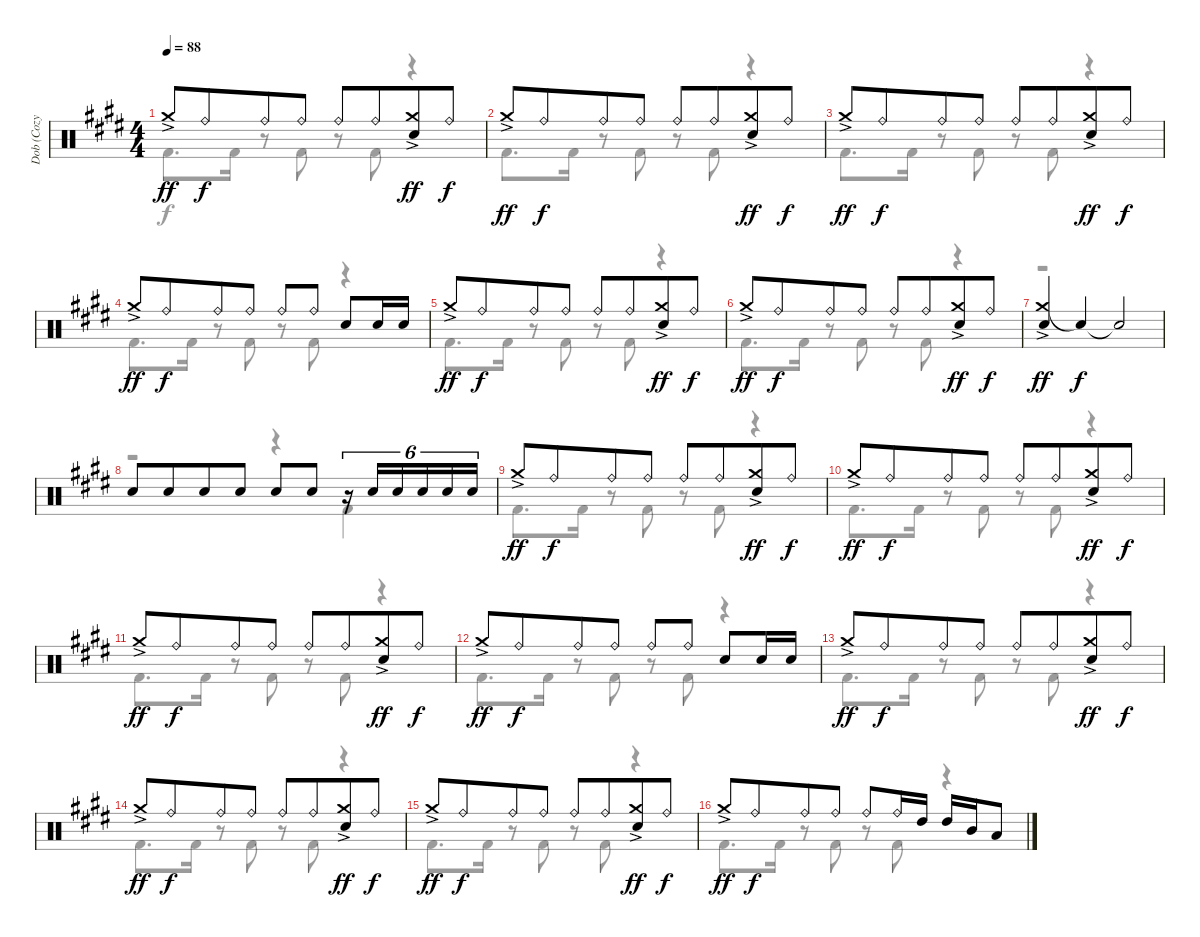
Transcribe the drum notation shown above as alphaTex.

\track ("Dob (Cozy Powell)" "Dob (Cozy ") {instrument percussion}
\staff {score}
\articulation defaults
\voice
\ts (4 4)
\tempo 88
\clef neutral
\ks e "Crash medium (hit)"{ac}.8{dy ff} "Ride (bell)".8{dy f beam merge} "Ride (bell)".8 "Ride (bell)".8 "Ride (bell)".8 "Ride (bell)".8{beam merge}
("Crash medium (hit)"{ac} "Electric Snare (hit)").8{dy ff} "Ride (bell)".8{dy f} |
"Crash medium (hit)"{ac}.8{dy ff} "Ride (bell)".8{dy f beam merge} "Ride (bell)".8 "Ride (bell)".8 "Ride (bell)".8 "Ride (bell)".8{beam merge} ("Crash medium (hit)"{ac} "Electric Snare (hit)").8{dy ff} "Ride (bell)".8{dy f} |
"Crash medium (hit)"{ac}.8{dy ff} "Ride (bell)".8{dy f beam merge} "Ride (bell)".8 "Ride (bell)".8 "Ride (bell)".8 "Ride (bell)".8{beam merge} ("Crash medium (hit)"{ac} "Electric Snare (hit)").8{dy ff} "Ride (bell)".8{dy f} |
"Crash medium (hit)"{ac}.8{dy ff} "Ride (bell)".8{dy f beam merge} "Ride (bell)".8 "Ride (bell)".8 "Ride (bell)".8 "Ride (bell)".8 "Electric Snare (hit)".8 "Electric Snare (hit)".16 "Electric Snare (hit)".16 |
"Crash medium (hit)"{ac}.8{dy ff} "Ride (bell)".8{dy f beam merge} "Ride (bell)".8 "Ride (bell)".8 "Ride (bell)".8 "Ride (bell)".8{beam merge} ("Crash medium (hit)"{ac} "Electric Snare (hit)").8{dy ff} "Ride (bell)".8{dy f} |
"Crash medium (hit)"{ac}.8{dy ff} "Ride (bell)".8{dy f beam merge} "Ride (bell)".8 "Ride (bell)".8 "Ride (bell)".8 "Ride (bell)".8{beam merge} ("Crash medium (hit)"{ac} "Electric Snare (hit)").8{dy ff} "Ride (bell)".8{dy f} |
("Crash medium (hit)"{ac} "Electric Snare (hit)").4{dy ff} "Snare (hit)"{t}.4{dy f} "Snare (hit)"{t}.2 |
"Electric Snare (hit)".8 "Electric Snare (hit)".8{beam merge} "Electric Snare (hit)".8 "Electric Snare (hit)".8 "Electric Snare (hit)".8 "Electric Snare (hit)".8 r.16{tu (6 4)} "Electric Snare (hit)".16{tu (6 4)} "Electric Snare (hit)".16{tu (6 4)} "Electric Snare (hit)".16{tu (6 4)} "Electric Snare (hit)".16{tu (6 4)} "Electric Snare (hit)".16{tu (6 4)} |
"Crash medium (hit)"{ac}.8{dy ff} "Ride (bell)".8{dy f beam merge} "Ride (bell)".8 "Ride (bell)".8 "Ride (bell)".8 "Ride (bell)".8{beam merge} ("Crash medium (hit)"{ac} "Electric Snare (hit)").8{dy ff} "Ride (bell)".8{dy f} |
"Crash medium (hit)"{ac}.8{dy ff} "Ride (bell)".8{dy f beam merge} "Ride (bell)".8 "Ride (bell)".8 "Ride (bell)".8 "Ride (bell)".8{beam merge} ("Crash medium (hit)"{ac} "Electric Snare (hit)").8{dy ff} "Ride (bell)".8{dy f} |
"Crash medium (hit)"{ac}.8{dy ff} "Ride (bell)".8{dy f beam merge} "Ride (bell)".8 "Ride (bell)".8 "Ride (bell)".8 "Ride (bell)".8{beam merge} ("Crash medium (hit)"{ac} "Electric Snare (hit)").8{dy ff} "Ride (bell)".8{dy f} |
"Crash medium (hit)"{ac}.8{dy ff} "Ride (bell)".8{dy f beam merge} "Ride (bell)".8 "Ride (bell)".8 "Ride (bell)".8 "Ride (bell)".8 "Electric Snare (hit)".8 "Electric Snare (hit)".16 "Electric Snare (hit)".16 |
"Crash medium (hit)"{ac}.8{dy ff} "Ride (bell)".8{dy f beam merge} "Ride (bell)".8 "Ride (bell)".8 "Ride (bell)".8 "Ride (bell)".8{beam merge} ("Crash medium (hit)"{ac} "Electric Snare (hit)").8{dy ff} "Ride (bell)".8{dy f} |
"Crash medium (hit)"{ac}.8{dy ff} "Ride (bell)".8{dy f beam merge} "Ride (bell)".8 "Ride (bell)".8 "Ride (bell)".8 "Ride (bell)".8{beam merge} ("Crash medium (hit)"{ac} "Electric Snare (hit)").8{dy ff} "Ride (bell)".8{dy f} |
"Crash medium (hit)"{ac}.8{dy ff} "Ride (bell)".8{dy f beam merge} "Ride (bell)".8 "Ride (bell)".8 "Ride (bell)".8 "Ride (bell)".8{beam merge} ("Crash medium (hit)"{ac} "Electric Snare (hit)").8{dy ff} "Ride (bell)".8{dy f} |
"Crash medium (hit)"{ac}.8{dy ff} "Ride (bell)".8{dy f beam merge} "Ride (bell)".8 "Ride (bell)".8 "Ride (bell)".8 "Ride (bell)".16 "High Tom (hit)".16 "High Tom (hit)".16 "Mid Tom (hit)".16 "Low Tom (hit)".8
\voice
\clef neutral
\ottava regular
\simile none
\ks e "Kick (hit) 2".8{d dy f} "Kick (hit) 2".16
r.8 "Kick (hit) 2".8 r.8 "Kick (hit) 2".8 r.4 |
"Kick (hit) 2".8{d} "Kick (hit) 2".16 r.8 "Kick (hit) 2".8 r.8 "Kick (hit) 2".8 r.4 |
"Kick (hit) 2".8{d} "Kick (hit) 2".16 r.8 "Kick (hit) 2".8 r.8 "Kick (hit) 2".8 r.4 |
"Kick (hit) 2".8{d} "Kick (hit) 2".16 r.8 "Kick (hit) 2".8 r.8 "Kick (hit) 2".8 r.4 |
"Kick (hit) 2".8{d} "Kick (hit) 2".16 r.8 "Kick (hit) 2".8 r.8 "Kick (hit) 2".8 r.4 |
"Kick (hit) 2".8{d} "Kick (hit) 2".16 r.8 "Kick (hit) 2".8 r.8 "Kick (hit) 2".8 r.4 |
r.1 |
r.2 r.4 "Kick (hit) 2".4 |
"Kick (hit) 2".8{d} "Kick (hit) 2".16 r.8 "Kick (hit) 2".8 r.8 "Kick (hit) 2".8 r.4 |
"Kick (hit) 2".8{d} "Kick (hit) 2".16 r.8 "Kick (hit) 2".8 r.8 "Kick (hit) 2".8 r.4 |
"Kick (hit) 2".8{d} "Kick (hit) 2".16 r.8 "Kick (hit) 2".8 r.8 "Kick (hit) 2".8 r.4 |
"Kick (hit) 2".8{d} "Kick (hit) 2".16 r.8 "Kick (hit) 2".8 r.8 "Kick (hit) 2".8 r.4 |
"Kick (hit) 2".8{d} "Kick (hit) 2".16 r.8 "Kick (hit) 2".8 r.8 "Kick (hit) 2".8 r.4 |
"Kick (hit) 2".8{d} "Kick (hit) 2".16 r.8 "Kick (hit) 2".8 r.8 "Kick (hit) 2".8 r.4 |
"Kick (hit) 2".8{d} "Kick (hit) 2".16 r.8 "Kick (hit) 2".8 r.8 "Kick (hit) 2".8 r.4 |
"Kick (hit) 2".8{d} "Kick (hit) 2".16 r.8 "Kick (hit) 2".8 r.8 "Kick (hit) 2".8 r.4
